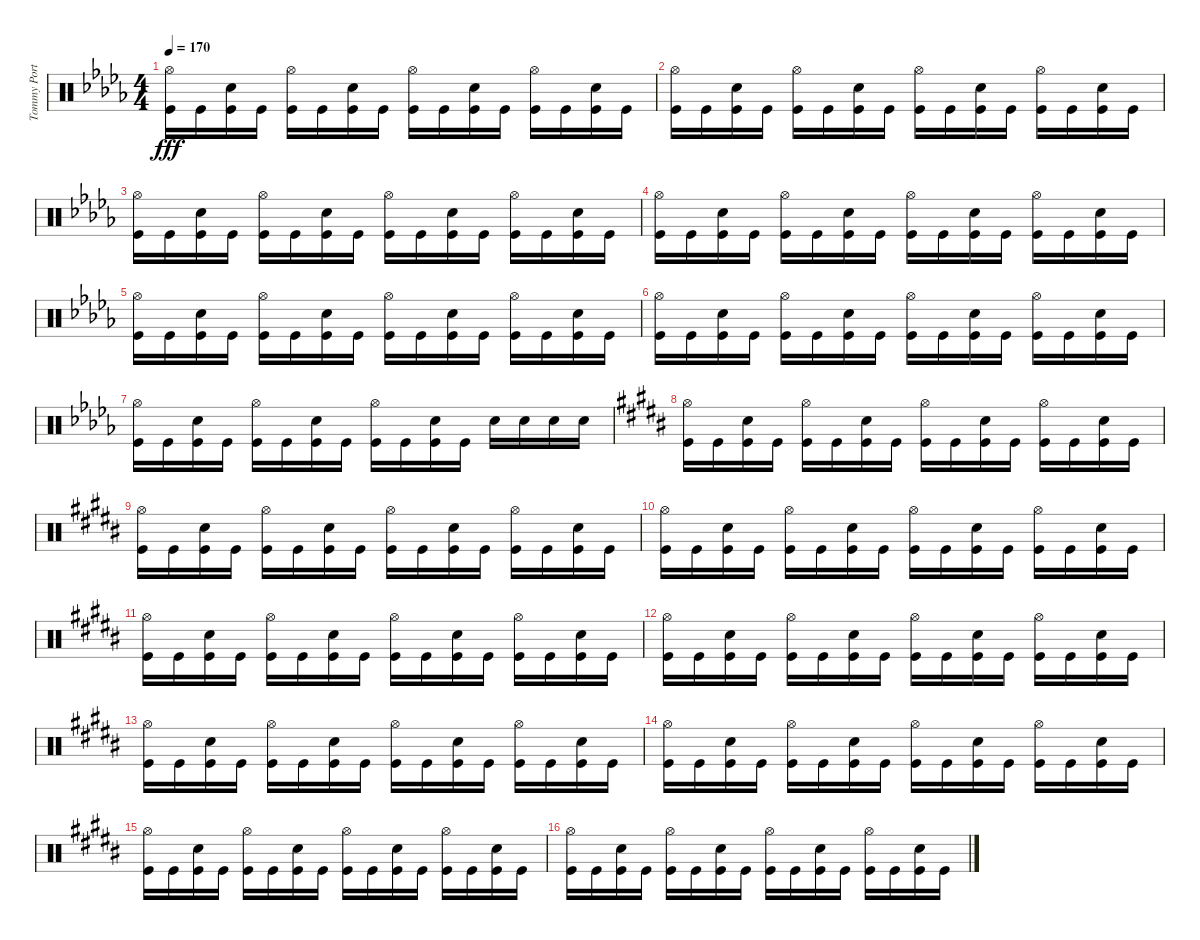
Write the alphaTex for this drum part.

\track ("Tommy Portimo (Percussion)" "Tommy Port") {instrument percussion}
\staff {score}
\articulation defaults
\ts (4 4)
\tempo 170
\clef neutral
\ks db
("Kick (hit)" "Hi-Hat (open)").16{dy fff} "Kick (hit)".16 ("Kick (hit)" "Electric Snare (hit)").16 "Kick (hit)".16 ("Kick (hit)" "Hi-Hat (open)").16 "Kick (hit)".16 ("Kick (hit)" "Electric Snare (hit)").16 "Kick (hit)".16 ("Kick (hit)" "Hi-Hat (open)").16 "Kick (hit)".16 ("Kick (hit)" "Electric Snare (hit)").16 "Kick (hit)".16 ("Kick (hit)" "Hi-Hat (open)").16 "Kick (hit)".16 ("Kick (hit)" "Electric Snare (hit)").16 "Kick (hit)".16 |
("Kick (hit)" "Hi-Hat (open)").16 "Kick (hit)".16 ("Kick (hit)" "Electric Snare (hit)").16 "Kick (hit)".16 ("Kick (hit)" "Hi-Hat (open)").16 "Kick (hit)".16 ("Kick (hit)" "Electric Snare (hit)").16 "Kick (hit)".16 ("Kick (hit)" "Hi-Hat (open)").16 "Kick (hit)".16 ("Kick (hit)" "Electric Snare (hit)").16 "Kick (hit)".16 ("Kick (hit)" "Hi-Hat (open)").16 "Kick (hit)".16 ("Kick (hit)" "Electric Snare (hit)").16 "Kick (hit)".16 |
("Kick (hit)" "Hi-Hat (open)").16 "Kick (hit)".16 ("Kick (hit)" "Electric Snare (hit)").16 "Kick (hit)".16 ("Kick (hit)" "Hi-Hat (open)").16 "Kick (hit)".16 ("Kick (hit)" "Electric Snare (hit)").16 "Kick (hit)".16 ("Kick (hit)" "Hi-Hat (open)").16 "Kick (hit)".16 ("Kick (hit)" "Electric Snare (hit)").16 "Kick (hit)".16 ("Kick (hit)" "Hi-Hat (open)").16 "Kick (hit)".16 ("Kick (hit)" "Electric Snare (hit)").16 "Kick (hit)".16 |
("Kick (hit)" "Hi-Hat (open)").16 "Kick (hit)".16 ("Kick (hit)" "Electric Snare (hit)").16 "Kick (hit)".16 ("Kick (hit)" "Hi-Hat (open)").16 "Kick (hit)".16 ("Kick (hit)" "Electric Snare (hit)").16 "Kick (hit)".16 ("Kick (hit)" "Hi-Hat (open)").16 "Kick (hit)".16 ("Kick (hit)" "Electric Snare (hit)").16 "Kick (hit)".16 ("Kick (hit)" "Hi-Hat (open)").16 "Kick (hit)".16 ("Kick (hit)" "Electric Snare (hit)").16 "Kick (hit)".16 |
("Kick (hit)" "Hi-Hat (open)").16 "Kick (hit)".16 ("Kick (hit)" "Electric Snare (hit)").16 "Kick (hit)".16 ("Kick (hit)" "Hi-Hat (open)").16 "Kick (hit)".16 ("Kick (hit)" "Electric Snare (hit)").16 "Kick (hit)".16 ("Kick (hit)" "Hi-Hat (open)").16 "Kick (hit)".16 ("Kick (hit)" "Electric Snare (hit)").16 "Kick (hit)".16 ("Kick (hit)" "Hi-Hat (open)").16 "Kick (hit)".16 ("Kick (hit)" "Electric Snare (hit)").16 "Kick (hit)".16 |
("Kick (hit)" "Hi-Hat (open)").16 "Kick (hit)".16 ("Kick (hit)" "Electric Snare (hit)").16 "Kick (hit)".16 ("Kick (hit)" "Hi-Hat (open)").16 "Kick (hit)".16 ("Kick (hit)" "Electric Snare (hit)").16 "Kick (hit)".16 ("Kick (hit)" "Hi-Hat (open)").16 "Kick (hit)".16 ("Kick (hit)" "Electric Snare (hit)").16 "Kick (hit)".16 ("Kick (hit)" "Hi-Hat (open)").16 "Kick (hit)".16 ("Kick (hit)" "Electric Snare (hit)").16 "Kick (hit)".16 |
("Kick (hit)" "Hi-Hat (open)").16 "Kick (hit)".16 ("Kick (hit)" "Electric Snare (hit)").16 "Kick (hit)".16 ("Kick (hit)" "Hi-Hat (open)").16 "Kick (hit)".16 ("Kick (hit)" "Electric Snare (hit)").16 "Kick (hit)".16 ("Kick (hit)" "Hi-Hat (open)").16 "Kick (hit)".16 ("Kick (hit)" "Electric Snare (hit)").16 "Kick (hit)".16 "Electric Snare (hit)".16 "Electric Snare (hit)".16 "Electric Snare (hit)".16 "Electric Snare (hit)".16 |
\ks b
("Kick (hit)" "Hi-Hat (open)").16 "Kick (hit)".16 ("Kick (hit)" "Electric Snare (hit)").16 "Kick (hit)".16 ("Kick (hit)" "Hi-Hat (open)").16 "Kick (hit)".16 ("Kick (hit)" "Electric Snare (hit)").16 "Kick (hit)".16 ("Kick (hit)" "Hi-Hat (open)").16 "Kick (hit)".16 ("Kick (hit)" "Electric Snare (hit)").16 "Kick (hit)".16 ("Kick (hit)" "Hi-Hat (open)").16 "Kick (hit)".16 ("Kick (hit)" "Electric Snare (hit)").16 "Kick (hit)".16 |
("Kick (hit)" "Hi-Hat (open)").16 "Kick (hit)".16 ("Kick (hit)" "Electric Snare (hit)").16 "Kick (hit)".16 ("Kick (hit)" "Hi-Hat (open)").16 "Kick (hit)".16 ("Kick (hit)" "Electric Snare (hit)").16 "Kick (hit)".16 ("Kick (hit)" "Hi-Hat (open)").16 "Kick (hit)".16 ("Kick (hit)" "Electric Snare (hit)").16 "Kick (hit)".16 ("Kick (hit)" "Hi-Hat (open)").16 "Kick (hit)".16 ("Kick (hit)" "Electric Snare (hit)").16 "Kick (hit)".16 |
("Kick (hit)" "Hi-Hat (open)").16 "Kick (hit)".16 ("Kick (hit)" "Electric Snare (hit)").16 "Kick (hit)".16 ("Kick (hit)" "Hi-Hat (open)").16 "Kick (hit)".16 ("Kick (hit)" "Electric Snare (hit)").16 "Kick (hit)".16 ("Kick (hit)" "Hi-Hat (open)").16 "Kick (hit)".16 ("Kick (hit)" "Electric Snare (hit)").16 "Kick (hit)".16 ("Kick (hit)" "Hi-Hat (open)").16 "Kick (hit)".16 ("Kick (hit)" "Electric Snare (hit)").16 "Kick (hit)".16 |
("Kick (hit)" "Hi-Hat (open)").16 "Kick (hit)".16 ("Kick (hit)" "Electric Snare (hit)").16 "Kick (hit)".16 ("Kick (hit)" "Hi-Hat (open)").16 "Kick (hit)".16 ("Kick (hit)" "Electric Snare (hit)").16 "Kick (hit)".16 ("Kick (hit)" "Hi-Hat (open)").16 "Kick (hit)".16 ("Kick (hit)" "Electric Snare (hit)").16 "Kick (hit)".16 ("Kick (hit)" "Hi-Hat (open)").16 "Kick (hit)".16 ("Kick (hit)" "Electric Snare (hit)").16 "Kick (hit)".16 |
("Kick (hit)" "Hi-Hat (open)").16 "Kick (hit)".16 ("Kick (hit)" "Electric Snare (hit)").16 "Kick (hit)".16 ("Kick (hit)" "Hi-Hat (open)").16 "Kick (hit)".16 ("Kick (hit)" "Electric Snare (hit)").16 "Kick (hit)".16 ("Kick (hit)" "Hi-Hat (open)").16 "Kick (hit)".16 ("Kick (hit)" "Electric Snare (hit)").16 "Kick (hit)".16 ("Kick (hit)" "Hi-Hat (open)").16 "Kick (hit)".16 ("Kick (hit)" "Electric Snare (hit)").16 "Kick (hit)".16 |
("Kick (hit)" "Hi-Hat (open)").16 "Kick (hit)".16 ("Kick (hit)" "Electric Snare (hit)").16 "Kick (hit)".16 ("Kick (hit)" "Hi-Hat (open)").16 "Kick (hit)".16 ("Kick (hit)" "Electric Snare (hit)").16 "Kick (hit)".16 ("Kick (hit)" "Hi-Hat (open)").16 "Kick (hit)".16 ("Kick (hit)" "Electric Snare (hit)").16 "Kick (hit)".16 ("Kick (hit)" "Hi-Hat (open)").16 "Kick (hit)".16 ("Kick (hit)" "Electric Snare (hit)").16 "Kick (hit)".16 |
("Kick (hit)" "Hi-Hat (open)").16 "Kick (hit)".16 ("Kick (hit)" "Electric Snare (hit)").16 "Kick (hit)".16 ("Kick (hit)" "Hi-Hat (open)").16 "Kick (hit)".16 ("Kick (hit)" "Electric Snare (hit)").16 "Kick (hit)".16 ("Kick (hit)" "Hi-Hat (open)").16 "Kick (hit)".16 ("Kick (hit)" "Electric Snare (hit)").16 "Kick (hit)".16 ("Kick (hit)" "Hi-Hat (open)").16 "Kick (hit)".16 ("Kick (hit)" "Electric Snare (hit)").16 "Kick (hit)".16 |
("Kick (hit)" "Hi-Hat (open)").16 "Kick (hit)".16 ("Kick (hit)" "Electric Snare (hit)").16 "Kick (hit)".16 ("Kick (hit)" "Hi-Hat (open)").16 "Kick (hit)".16 ("Kick (hit)" "Electric Snare (hit)").16 "Kick (hit)".16 ("Kick (hit)" "Hi-Hat (open)").16 "Kick (hit)".16 ("Kick (hit)" "Electric Snare (hit)").16 "Kick (hit)".16 ("Kick (hit)" "Hi-Hat (open)").16 "Kick (hit)".16 ("Kick (hit)" "Electric Snare (hit)").16 "Kick (hit)".16 |
("Kick (hit)" "Hi-Hat (open)").16 "Kick (hit)".16 ("Kick (hit)" "Electric Snare (hit)").16 "Kick (hit)".16 ("Kick (hit)" "Hi-Hat (open)").16 "Kick (hit)".16 ("Kick (hit)" "Electric Snare (hit)").16 "Kick (hit)".16 ("Kick (hit)" "Hi-Hat (open)").16 "Kick (hit)".16 ("Kick (hit)" "Electric Snare (hit)").16 "Kick (hit)".16 ("Kick (hit)" "Hi-Hat (open)").16 "Kick (hit)".16 ("Kick (hit)" "Electric Snare (hit)").16 "Kick (hit)".16
